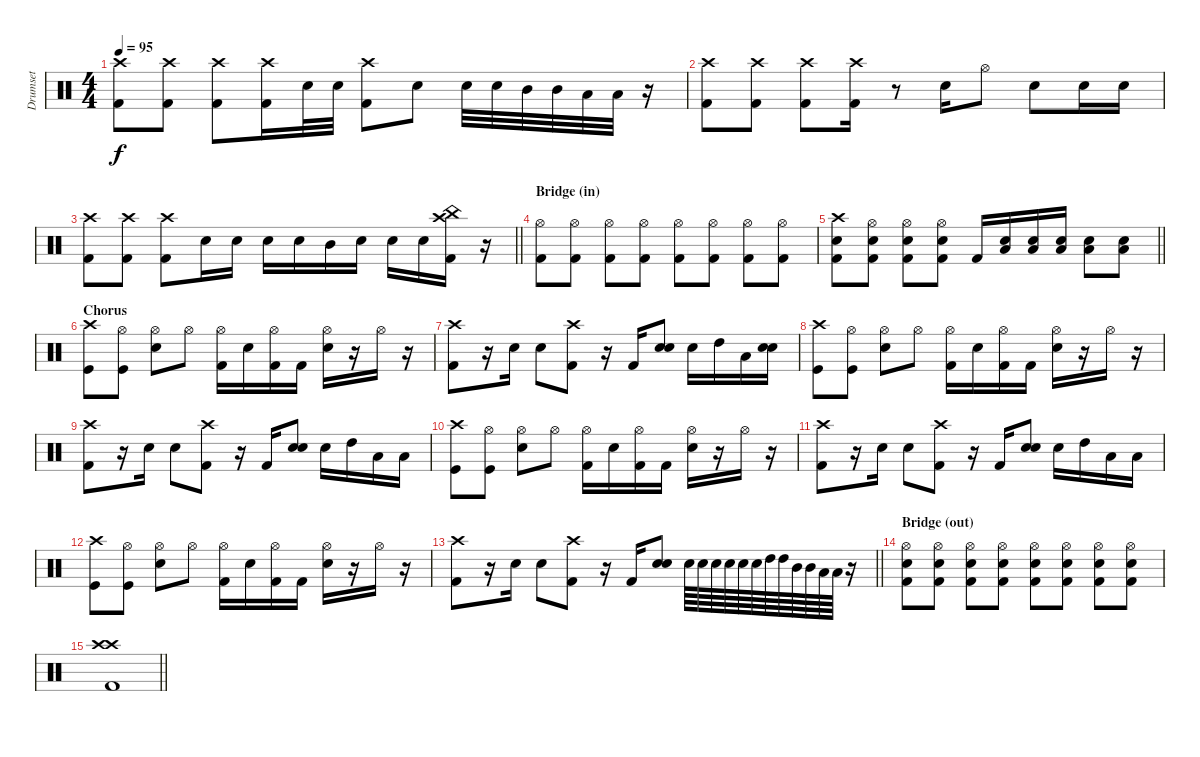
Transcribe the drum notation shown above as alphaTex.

\track ("Drumset" "Drumset") {solo instrument percussion}
\staff {score}
\articulation defaults
\ts (4 4)
\tempo 95
\clef neutral
\ks c
("Crash high (hit)" "Kick (hit) 2").8{dy f} ("Crash high (hit)" "Kick (hit) 2").8 ("Crash high (hit)" "Kick (hit) 2").8 ("Crash high (hit)" "Kick (hit) 2").16 "Snare (hit) 2".32 "Snare (hit) 2".32 ("Crash high (hit)" "Kick (hit) 2").8 "Snare (hit) 2".8 "Snare (hit) 2".32 "Snare (hit) 2".32 "Mid Tom (hit)".32 "Mid Tom (hit)".32 "Low Tom (hit)".32 "Low Tom (hit)".32 r.16 |
("Crash high (hit)" "Kick (hit) 2").8 ("Crash high (hit)" "Kick (hit) 2").8 ("Crash high (hit)" "Kick (hit) 2").8 ("Crash high (hit)" "Kick (hit) 2").16 r.8 "Snare (hit) 2".16 "Hi-Hat (open)".8 "Snare (hit) 2".8 "Snare (hit) 2".16 "Snare (hit) 2".16 |
\barLineRight lightlight
("Crash high (hit)" "Kick (hit) 2").8 ("Crash high (hit)" "Kick (hit) 2").8 ("Crash high (hit)" "Kick (hit) 2").8 "Snare (hit) 2".16 "Snare (hit) 2".16 "Snare (hit) 2".16 "Snare (hit) 2".16 "Mid Tom (hit)".16 "Snare (hit) 2".16 "Snare (hit) 2".16 "Snare (hit) 2".16 ("Crash high (hit)" "China (hit)" "Kick (hit) 2").16 r.16 |
\section ("" "Bridge (in)")
("Hi-Hat (open)" "Kick (hit) 2").8 ("Hi-Hat (open)" "Kick (hit) 2").8 ("Hi-Hat (open)" "Kick (hit) 2").8 ("Hi-Hat (open)" "Kick (hit) 2").8 ("Hi-Hat (open)" "Kick (hit) 2").8 ("Hi-Hat (open)" "Kick (hit) 2").8 ("Hi-Hat (open)" "Kick (hit) 2").8 ("Hi-Hat (open)" "Kick (hit) 2").8 |
\barLineRight lightlight
("Crash high (hit)" "Snare (hit) 2" "Kick (hit) 2").8 ("Hi-Hat (open)" "Snare (hit) 2" "Kick (hit) 2").8 ("Hi-Hat (open)" "Snare (hit) 2" "Kick (hit) 2").8 ("Hi-Hat (open)" "Snare (hit) 2" "Kick (hit) 2").8 "Kick (hit) 2".16 ("Snare (hit) 2" "Low Floor Tom (hit)").16 ("Snare (hit) 2" "Low Floor Tom (hit)").16 ("Snare (hit) 2" "Low Floor Tom (hit)").16 ("Snare (hit) 2" "Low Floor Tom (hit)").8 ("Snare (hit) 2" "Low Floor Tom (hit)").8 |
\section ("" "Chorus")
("Crash high (hit)" "Kick (hit)").8 ("Hi-Hat (open)" "Kick (hit)").8 ("Hi-Hat (open)" "Snare (hit) 2").8 "Hi-Hat (open)".8 ("Hi-Hat (open)" "Kick (hit) 2").16 "Snare (hit) 2".16 ("Hi-Hat (open)" "Kick (hit) 2").16 "Kick (hit) 2".16 ("Hi-Hat (open)" "Snare (hit) 2").16 r.16 "Hi-Hat (open)".16 r.16 |
("Crash high (hit)" "Kick (hit) 2").8 r.16 "Snare (hit) 2".16 "Snare (hit) 2".8 ("Crash high (hit)" "Kick (hit) 2").8 r.16 "Kick (hit) 2".16 ("Snare (hit) 2" "Snare (hit) 2").8 "Snare (hit) 2".16 "High Tom (hit)".16 "Low Tom (hit)".16 ("Snare (hit) 2" "Snare (hit) 2").16 |
("Crash high (hit)" "Kick (hit)").8 ("Hi-Hat (open)" "Kick (hit)").8 ("Hi-Hat (open)" "Snare (hit) 2").8 "Hi-Hat (open)".8 ("Hi-Hat (open)" "Kick (hit) 2").16 "Snare (hit) 2".16 ("Hi-Hat (open)" "Kick (hit) 2").16 "Kick (hit) 2".16 ("Hi-Hat (open)" "Snare (hit) 2").16 r.16 "Hi-Hat (open)".16 r.16 |
("Crash high (hit)" "Kick (hit) 2").8 r.16 "Snare (hit) 2".16 "Snare (hit) 2".8 ("Crash high (hit)" "Kick (hit) 2").8 r.16 "Kick (hit) 2".16 ("Snare (hit) 2" "Snare (hit) 2").8 "Snare (hit) 2".16 "High Tom (hit)".16 "Low Tom (hit)".16 "Low Floor Tom (hit)".16 |
("Crash high (hit)" "Kick (hit)").8 ("Hi-Hat (open)" "Kick (hit)").8 ("Hi-Hat (open)" "Snare (hit) 2").8 "Hi-Hat (open)".8 ("Hi-Hat (open)" "Kick (hit) 2").16 "Snare (hit) 2".16 ("Hi-Hat (open)" "Kick (hit) 2").16 "Kick (hit) 2".16 ("Hi-Hat (open)" "Snare (hit) 2").16 r.16 "Hi-Hat (open)".16 r.16 |
("Crash high (hit)" "Kick (hit) 2").8 r.16 "Snare (hit) 2".16 "Snare (hit) 2".8 ("Crash high (hit)" "Kick (hit) 2").8 r.16 "Kick (hit) 2".16 ("Snare (hit) 2" "Snare (hit) 2").8 "Snare (hit) 2".16 "High Tom (hit)".16 "Low Tom (hit)".16 "Low Floor Tom (hit)".16 |
("Crash high (hit)" "Kick (hit)").8 ("Hi-Hat (open)" "Kick (hit)").8 ("Hi-Hat (open)" "Snare (hit) 2").8 "Hi-Hat (open)".8 ("Hi-Hat (open)" "Kick (hit) 2").16 "Snare (hit) 2".16 ("Hi-Hat (open)" "Kick (hit) 2").16 "Kick (hit) 2".16 ("Hi-Hat (open)" "Snare (hit) 2").16 r.16 "Hi-Hat (open)".16 r.16 |
\barLineRight lightlight
("Crash high (hit)" "Kick (hit) 2").8 r.16 "Snare (hit) 2".16 "Snare (hit) 2".8 ("Crash high (hit)" "Kick (hit) 2").8 r.16 "Kick (hit) 2".16 ("Snare (hit) 2" "Snare (hit) 2").8 "Snare (hit) 2".64 "Snare (hit) 2".64 "Snare (hit) 2".64 "Snare (hit) 2".64 "Snare (hit) 2".64 "Snare (hit) 2".64 "High Tom (hit)".64 "High Tom (hit)".64 "Mid Tom (hit)".64 "Mid Tom (hit)".64 "Low Tom (hit)".64 "Low Tom (hit)".64 r.16 |
\section ("" "Bridge (out)")
("Hi-Hat (open)" "Snare (hit) 2" "Kick (hit) 2").8 ("Hi-Hat (open)" "Snare (hit) 2" "Kick (hit) 2").8 ("Hi-Hat (open)" "Snare (hit) 2" "Kick (hit) 2").8 ("Hi-Hat (open)" "Snare (hit) 2" "Kick (hit) 2").8 ("Hi-Hat (open)" "Snare (hit) 2" "Kick (hit) 2").8 ("Hi-Hat (open)" "Snare (hit) 2" "Kick (hit) 2").8 ("Hi-Hat (open)" "Snare (hit) 2" "Kick (hit) 2").8 ("Hi-Hat (open)" "Snare (hit) 2" "Kick (hit) 2").8 |
\barLineRight lightlight
("Crash high (hit)" "Crash high (hit)" "Kick (hit) 2").1
